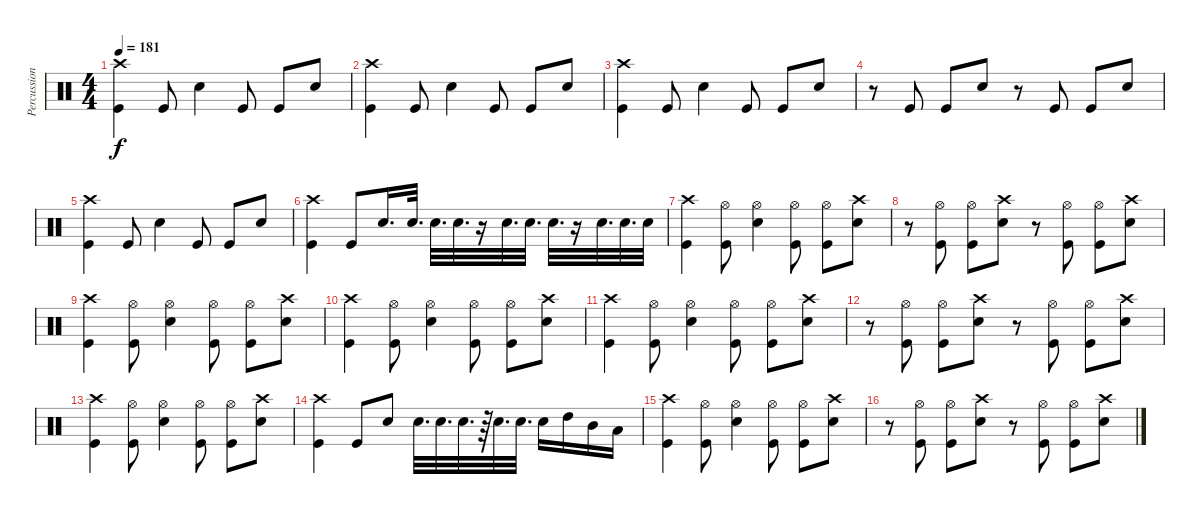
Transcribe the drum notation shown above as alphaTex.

\track ("Percussion" "Percussion") {instrument percussion}
\staff {score}
\articulation defaults
\ts (4 4)
\tempo 181
\clef neutral
\ks c
("Crash high (hit)" "Kick (hit)").4{dy f} "Kick (hit)".8 "Electric Snare (hit)".4 "Kick (hit)".8 "Kick (hit)".8 "Electric Snare (hit)".8 |
("Crash high (hit)" "Kick (hit)").4 "Kick (hit)".8 "Electric Snare (hit)".4 "Kick (hit)".8 "Kick (hit)".8 "Electric Snare (hit)".8 |
("Crash high (hit)" "Kick (hit)").4 "Kick (hit)".8 "Electric Snare (hit)".4 "Kick (hit)".8 "Kick (hit)".8 "Electric Snare (hit)".8 |
r.8 "Kick (hit)".8 "Kick (hit)".8 "Electric Snare (hit)".8 r.8 "Kick (hit)".8 "Kick (hit)".8 "Electric Snare (hit)".8 |
("Crash high (hit)" "Kick (hit)").4 "Kick (hit)".8 "Electric Snare (hit)".4 "Kick (hit)".8 "Kick (hit)".8 "Electric Snare (hit)".8 |
("Crash high (hit)" "Kick (hit)").4 "Kick (hit)".8 "Electric Snare (hit)".16{d} "Electric Snare (hit)".32{d} "Electric Snare (hit)".32{d} "Electric Snare (hit)".32{d} r.16 "Electric Snare (hit)".32{d} "Electric Snare (hit)".32{d} "Electric Snare (hit)".32{d} r.16 "Electric Snare (hit)".32{d} "Electric Snare (hit)".32{d} "Electric Snare (hit)".32 |
("Crash high (hit)" "Kick (hit)").4 ("Hi-Hat (open)" "Kick (hit)").8 ("Hi-Hat (open)" "Electric Snare (hit)").4 ("Hi-Hat (open)" "Kick (hit)").8 ("Hi-Hat (open)" "Kick (hit)").8 ("Crash high (hit)" "Electric Snare (hit)").8 |
r.8 ("Hi-Hat (open)" "Kick (hit)").8 ("Hi-Hat (open)" "Kick (hit)").8 ("Crash high (hit)" "Electric Snare (hit)").8 r.8 ("Hi-Hat (open)" "Kick (hit)").8 ("Hi-Hat (open)" "Kick (hit)").8 ("Crash high (hit)" "Electric Snare (hit)").8 |
("Crash high (hit)" "Kick (hit)").4 ("Hi-Hat (open)" "Kick (hit)").8 ("Hi-Hat (open)" "Electric Snare (hit)").4 ("Hi-Hat (open)" "Kick (hit)").8 ("Hi-Hat (open)" "Kick (hit)").8 ("Crash high (hit)" "Electric Snare (hit)").8 |
("Crash high (hit)" "Kick (hit)").4 ("Hi-Hat (open)" "Kick (hit)").8 ("Hi-Hat (open)" "Electric Snare (hit)").4 ("Hi-Hat (open)" "Kick (hit)").8 ("Hi-Hat (open)" "Kick (hit)").8 ("Crash high (hit)" "Electric Snare (hit)").8 |
("Crash high (hit)" "Kick (hit)").4 ("Hi-Hat (open)" "Kick (hit)").8 ("Hi-Hat (open)" "Electric Snare (hit)").4 ("Hi-Hat (open)" "Kick (hit)").8 ("Hi-Hat (open)" "Kick (hit)").8 ("Crash high (hit)" "Electric Snare (hit)").8 |
r.8 ("Hi-Hat (open)" "Kick (hit)").8 ("Hi-Hat (open)" "Kick (hit)").8 ("Crash high (hit)" "Electric Snare (hit)").8 r.8 ("Hi-Hat (open)" "Kick (hit)").8 ("Hi-Hat (open)" "Kick (hit)").8 ("Crash high (hit)" "Electric Snare (hit)").8 |
("Crash high (hit)" "Kick (hit)").4 ("Hi-Hat (open)" "Kick (hit)").8 ("Hi-Hat (open)" "Electric Snare (hit)").4 ("Hi-Hat (open)" "Kick (hit)").8 ("Hi-Hat (open)" "Kick (hit)").8 ("Crash high (hit)" "Electric Snare (hit)").8 |
("Crash high (hit)" "Kick (hit)").4 "Kick (hit)".8 "Electric Snare (hit)".8 "Electric Snare (hit)".32{d} "Electric Snare (hit)".32{d} "Electric Snare (hit)".32{d} r.64 "Electric Snare (hit)".32{d} "Electric Snare (hit)".32{d} "Electric Snare (hit)".16 "High Tom (hit)".16 "Mid Tom (hit)".16 "Low Tom (hit)".16 |
("Crash high (hit)" "Kick (hit)").4 ("Hi-Hat (open)" "Kick (hit)").8 ("Hi-Hat (open)" "Electric Snare (hit)").4 ("Hi-Hat (open)" "Kick (hit)").8 ("Hi-Hat (open)" "Kick (hit)").8 ("Crash high (hit)" "Electric Snare (hit)").8 |
r.8 ("Hi-Hat (open)" "Kick (hit)").8 ("Hi-Hat (open)" "Kick (hit)").8 ("Crash high (hit)" "Electric Snare (hit)").8 r.8 ("Hi-Hat (open)" "Kick (hit)").8 ("Hi-Hat (open)" "Kick (hit)").8 ("Crash high (hit)" "Electric Snare (hit)").8
